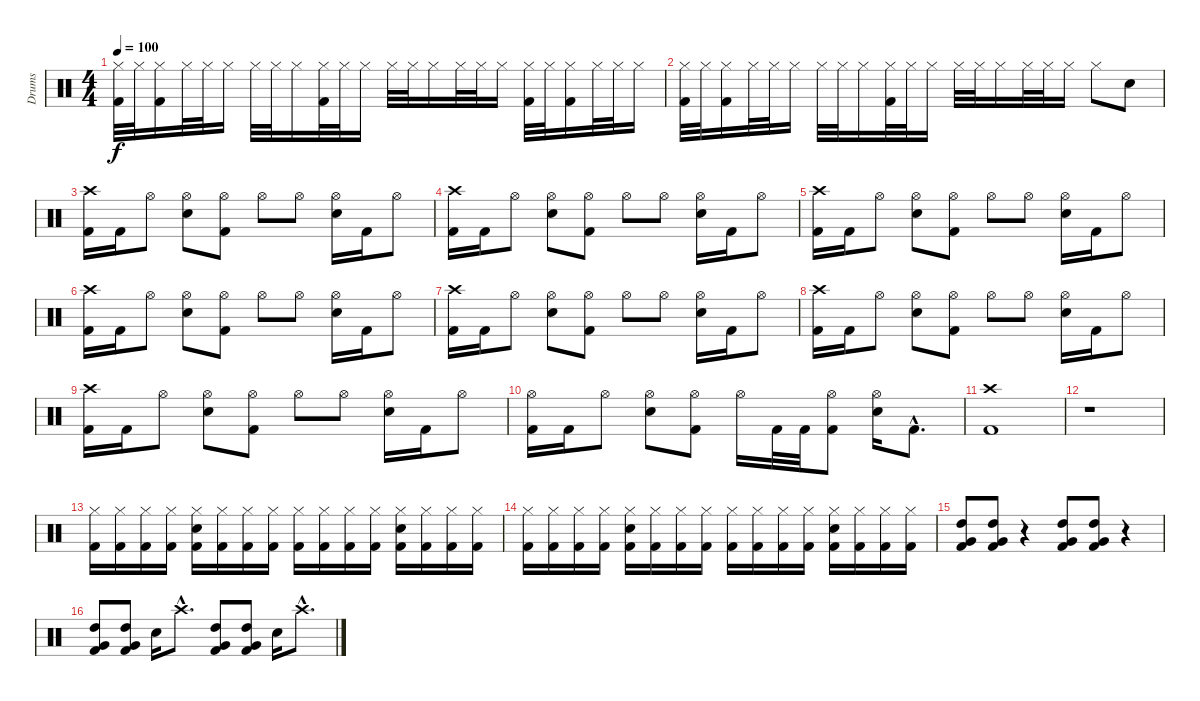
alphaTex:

\track ("Drums" "Drums") {instrument percussion}
\staff {score}
\articulation defaults
\ts (4 4)
\tempo 100
\clef neutral
\ks c
("Hi-Hat (closed)" "Kick (hit) 2").32{dy f} "Hi-Hat (closed)".32 ("Hi-Hat (closed)" "Kick (hit) 2").16 "Hi-Hat (closed)".32 "Hi-Hat (closed)".32 "Hi-Hat (closed)".16 "Hi-Hat (closed)".32 "Hi-Hat (closed)".32 "Hi-Hat (closed)".16 ("Hi-Hat (closed)" "Kick (hit) 2").32 "Hi-Hat (closed)".32 "Hi-Hat (closed)".16 "Hi-Hat (closed)".32 "Hi-Hat (closed)".32 "Hi-Hat (closed)".16 "Hi-Hat (closed)".32 "Hi-Hat (closed)".32 "Hi-Hat (closed)".16 ("Hi-Hat (closed)" "Kick (hit) 2").32 "Hi-Hat (closed)".32 ("Hi-Hat (closed)" "Kick (hit) 2").16 "Hi-Hat (closed)".32 "Hi-Hat (closed)".32 "Hi-Hat (closed)".16 |
("Hi-Hat (closed)" "Kick (hit) 2").32 "Hi-Hat (closed)".32 ("Hi-Hat (closed)" "Kick (hit) 2").16 "Hi-Hat (closed)".32 "Hi-Hat (closed)".32 "Hi-Hat (closed)".16 "Hi-Hat (closed)".32 "Hi-Hat (closed)".32 "Hi-Hat (closed)".16 ("Hi-Hat (closed)" "Kick (hit) 2").32 "Hi-Hat (closed)".32 "Hi-Hat (closed)".16 "Hi-Hat (closed)".32 "Hi-Hat (closed)".32 "Hi-Hat (closed)".16 "Hi-Hat (closed)".32 "Hi-Hat (closed)".32 "Hi-Hat (closed)".16 "Hi-Hat (closed)".8 "Electric Snare (hit)".8 |
("Crash high (hit)" "Kick (hit) 2").16 "Kick (hit) 2".16 "Hi-Hat (open)".8 ("Hi-Hat (open)" "Electric Snare (hit)").8 ("Hi-Hat (open)" "Kick (hit) 2").8 "Hi-Hat (open)".8 "Hi-Hat (open)".8 ("Hi-Hat (open)" "Electric Snare (hit)").16 "Kick (hit) 2".16 "Hi-Hat (open)".8 |
("Crash high (hit)" "Kick (hit) 2").16 "Kick (hit) 2".16 "Hi-Hat (open)".8 ("Hi-Hat (open)" "Electric Snare (hit)").8 ("Hi-Hat (open)" "Kick (hit) 2").8 "Hi-Hat (open)".8 "Hi-Hat (open)".8 ("Hi-Hat (open)" "Electric Snare (hit)").16 "Kick (hit) 2".16 "Hi-Hat (open)".8 |
("Crash high (hit)" "Kick (hit) 2").16 "Kick (hit) 2".16 "Hi-Hat (open)".8 ("Hi-Hat (open)" "Electric Snare (hit)").8 ("Hi-Hat (open)" "Kick (hit) 2").8 "Hi-Hat (open)".8 "Hi-Hat (open)".8 ("Hi-Hat (open)" "Electric Snare (hit)").16 "Kick (hit) 2".16 "Hi-Hat (open)".8 |
("Crash high (hit)" "Kick (hit) 2").16 "Kick (hit) 2".16 "Hi-Hat (open)".8 ("Hi-Hat (open)" "Electric Snare (hit)").8 ("Hi-Hat (open)" "Kick (hit) 2").8 "Hi-Hat (open)".8 "Hi-Hat (open)".8 ("Hi-Hat (open)" "Electric Snare (hit)").16 "Kick (hit) 2".16 "Hi-Hat (open)".8 |
("Crash high (hit)" "Kick (hit) 2").16 "Kick (hit) 2".16 "Hi-Hat (open)".8 ("Hi-Hat (open)" "Electric Snare (hit)").8 ("Hi-Hat (open)" "Kick (hit) 2").8 "Hi-Hat (open)".8 "Hi-Hat (open)".8 ("Hi-Hat (open)" "Electric Snare (hit)").16 "Kick (hit) 2".16 "Hi-Hat (open)".8 |
("Crash high (hit)" "Kick (hit) 2").16 "Kick (hit) 2".16 "Hi-Hat (open)".8 ("Hi-Hat (open)" "Electric Snare (hit)").8 ("Hi-Hat (open)" "Kick (hit) 2").8 "Hi-Hat (open)".8 "Hi-Hat (open)".8 ("Hi-Hat (open)" "Electric Snare (hit)").16 "Kick (hit) 2".16 "Hi-Hat (open)".8 |
("Crash high (hit)" "Kick (hit) 2").16 "Kick (hit) 2".16 "Hi-Hat (open)".8 ("Hi-Hat (open)" "Electric Snare (hit)").8 ("Hi-Hat (open)" "Kick (hit) 2").8 "Hi-Hat (open)".8 "Hi-Hat (open)".8 ("Hi-Hat (open)" "Electric Snare (hit)").16 "Kick (hit) 2".16 "Hi-Hat (open)".8 |
("Hi-Hat (open)" "Kick (hit) 2").16 "Kick (hit) 2".16 "Hi-Hat (open)".8 ("Hi-Hat (open)" "Electric Snare (hit)").8 ("Hi-Hat (open)" "Kick (hit) 2").8 "Hi-Hat (open)".16 "Kick (hit) 2".32 "Kick (hit) 2".32 ("Hi-Hat (open)" "Kick (hit) 2").8 ("Hi-Hat (open)" "Electric Snare (hit)").16 "Kick (hit) 2"{hac}.8{d} |
("Crash high (hit)" "Kick (hit) 2").1 |
r.1 |
("Hi-Hat (closed)" "Kick (hit) 2").16 ("Hi-Hat (closed)" "Kick (hit) 2").16 ("Hi-Hat (closed)" "Kick (hit) 2").16 ("Hi-Hat (closed)" "Kick (hit) 2").16 ("Hi-Hat (closed)" "Electric Snare (hit)" "Kick (hit) 2").16 ("Hi-Hat (closed)" "Kick (hit) 2").16 ("Hi-Hat (closed)" "Kick (hit) 2").16 ("Hi-Hat (closed)" "Kick (hit) 2").16 ("Hi-Hat (closed)" "Kick (hit) 2").16 ("Hi-Hat (closed)" "Kick (hit) 2").16 ("Hi-Hat (closed)" "Kick (hit) 2").16 ("Hi-Hat (closed)" "Kick (hit) 2").16 ("Hi-Hat (closed)" "Electric Snare (hit)" "Kick (hit) 2").16 ("Hi-Hat (closed)" "Kick (hit) 2").16 ("Hi-Hat (closed)" "Kick (hit) 2").16 ("Hi-Hat (closed)" "Kick (hit) 2").16 |
("Hi-Hat (closed)" "Kick (hit) 2").16 ("Hi-Hat (closed)" "Kick (hit) 2").16 ("Hi-Hat (closed)" "Kick (hit) 2").16 ("Hi-Hat (closed)" "Kick (hit) 2").16 ("Hi-Hat (closed)" "Electric Snare (hit)" "Kick (hit) 2").16 ("Hi-Hat (closed)" "Kick (hit) 2").16 ("Hi-Hat (closed)" "Kick (hit) 2").16 ("Hi-Hat (closed)" "Kick (hit) 2").16 ("Hi-Hat (closed)" "Kick (hit) 2").16 ("Hi-Hat (closed)" "Kick (hit) 2").16 ("Hi-Hat (closed)" "Kick (hit) 2").16 ("Hi-Hat (closed)" "Kick (hit) 2").16 ("Hi-Hat (closed)" "Electric Snare (hit)" "Kick (hit) 2").16 ("Hi-Hat (closed)" "Kick (hit) 2").16 ("Hi-Hat (closed)" "Kick (hit) 2").16 ("Hi-Hat (closed)" "Kick (hit) 2").16 |
("High Tom (hit)" "Very Low Tom (hit)" "Kick (hit) 2").8 ("High Tom (hit)" "Very Low Tom (hit)" "Kick (hit) 2").8 r.4 ("High Tom (hit)" "Very Low Tom (hit)" "Kick (hit) 2").8 ("High Tom (hit)" "Very Low Tom (hit)" "Kick (hit) 2").8 r.4 |
("High Tom (hit)" "Very Low Tom (hit)" "Kick (hit) 2").8 ("High Tom (hit)" "Very Low Tom (hit)" "Kick (hit) 2").8 "Electric Snare (hit)".16 "Crash high (hit)"{hac}.8{d} ("High Tom (hit)" "Very Low Tom (hit)" "Kick (hit) 2").8 ("High Tom (hit)" "Very Low Tom (hit)" "Kick (hit) 2").8 "Electric Snare (hit)".16 "Crash high (hit)"{hac}.8{d}
